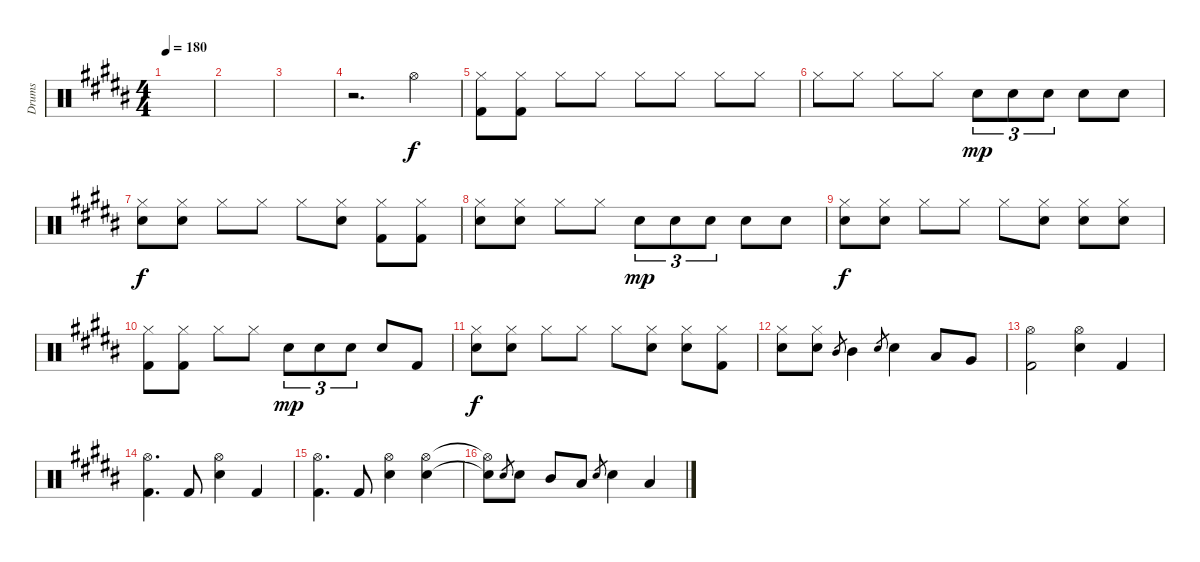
\track ("Drums" "Drums") {instrument percussion}
\staff {score}
\articulation defaults
\ts (4 4)
\tempo 180
\clef neutral
\ks g#minor
|
|
|
r.2{d} "Hi-Hat (open)".4 |
("Hi-Hat (closed)" "Kick (hit) 2").8 ("Hi-Hat (closed)" "Kick (hit) 2").8 "Hi-Hat (closed)".8 "Hi-Hat (closed)".8 "Hi-Hat (closed)".8 "Hi-Hat (closed)".8 "Hi-Hat (closed)".8 "Hi-Hat (closed)".8 |
"Hi-Hat (closed)".8 "Hi-Hat (closed)".8 "Hi-Hat (closed)".8 "Hi-Hat (closed)".8 "Snare (hit) 2".8{tu (3 2) dy mp} "Snare (hit) 2".8{tu (3 2)} "Snare (hit) 2".8{tu (3 2)} "Snare (hit) 2".8 "Snare (hit) 2".8 |
("Hi-Hat (closed)" "Snare (hit) 2").8{dy f} ("Hi-Hat (closed)" "Snare (hit) 2").8 "Hi-Hat (closed)".8 "Hi-Hat (closed)".8 "Hi-Hat (closed)".8 ("Hi-Hat (closed)" "Snare (hit) 2").8 ("Hi-Hat (closed)" "Kick (hit) 2").8 ("Hi-Hat (closed)" "Kick (hit) 2").8 |
("Hi-Hat (closed)" "Snare (hit) 2").8 ("Hi-Hat (closed)" "Snare (hit) 2").8 "Hi-Hat (closed)".8 "Hi-Hat (closed)".8 "Snare (hit) 2".8{tu (3 2) dy mp} "Snare (hit) 2".8{tu (3 2)} "Snare (hit) 2".8{tu (3 2)} "Snare (hit) 2".8 "Snare (hit) 2".8 |
("Hi-Hat (closed)" "Snare (hit) 2").8{dy f} ("Hi-Hat (closed)" "Snare (hit) 2").8 "Hi-Hat (closed)".8 "Hi-Hat (closed)".8 "Hi-Hat (closed)".8 ("Hi-Hat (closed)" "Snare (hit) 2").8 ("Hi-Hat (closed)" "Snare (hit) 2").8 ("Hi-Hat (closed)" "Snare (hit) 2").8 |
("Hi-Hat (closed)" "Kick (hit) 2").8 ("Hi-Hat (closed)" "Kick (hit) 2").8 "Hi-Hat (closed)".8 "Hi-Hat (closed)".8 "Snare (hit) 2".8{tu (3 2) dy mp} "Snare (hit) 2".8{tu (3 2)} "Snare (hit) 2".8{tu (3 2)} "Snare (hit) 2".8 "Kick (hit) 2".8 |
("Hi-Hat (closed)" "Snare (hit) 2").8{dy f} ("Hi-Hat (closed)" "Snare (hit) 2").8 "Hi-Hat (closed)".8 "Hi-Hat (closed)".8 "Hi-Hat (closed)".8 ("Hi-Hat (closed)" "Snare (hit) 2").8 ("Hi-Hat (closed)" "Snare (hit) 2").8 ("Hi-Hat (closed)" "Kick (hit) 2").8 |
("Hi-Hat (closed)" "Snare (hit) 2").8 ("Hi-Hat (closed)" "Snare (hit) 2").8 "Mid Tom (hit)".8{gr} "Mid Tom (hit)".4 "Snare (hit) 2".8{gr} "Snare (hit) 2".4 "Low Tom (hit)".8 "Very Low Tom (hit)".8 |
("Kick (hit) 2" "Hi-Hat (open)").2 ("Hi-Hat (open)" "Snare (hit) 2").4 "Kick (hit) 2".4 |
("Kick (hit) 2" "Hi-Hat (open)").4{d} "Kick (hit) 2".8 ("Hi-Hat (open)" "Snare (hit) 2").4 "Kick (hit) 2".4 |
("Kick (hit) 2" "Hi-Hat (open)").4{d} "Kick (hit) 2".8 ("Hi-Hat (open)" "Snare (hit) 2").4 ("Hi-Hat (open)" "Snare (hit) 2").4 |
("Hi-Hat (open)"{t} "Snare (hit) 2"{t}).8 "Snare (hit) 2".8{gr} "Snare (hit) 2".8 "Mid Tom (hit)".8 "Low Tom (hit)".8 "Snare (hit) 2".8{gr} "Snare (hit) 2".4 "Low Tom (hit)".4
